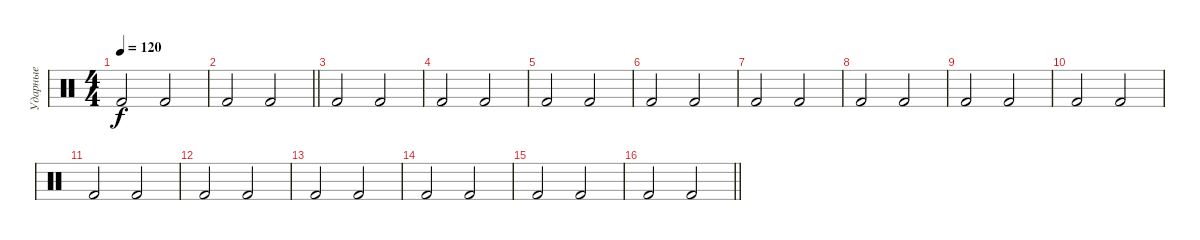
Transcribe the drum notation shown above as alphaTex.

\track ("Ударные" "Ударные") {instrument percussion}
\staff {score}
\articulation defaults
\ts (4 4)
\tempo 120
\clef neutral
\ks c "Kick (hit) 2".2{dy f} "Kick (hit) 2".2
|
\barLineRight lightlight "Kick (hit) 2".2 "Kick (hit) 2".2
|
"Kick (hit) 2".2 "Kick (hit) 2".2 |
"Kick (hit) 2".2 "Kick (hit) 2".2 |
"Kick (hit) 2".2 "Kick (hit) 2".2 |
"Kick (hit) 2".2 "Kick (hit) 2".2 |
"Kick (hit) 2".2 "Kick (hit) 2".2 |
"Kick (hit) 2".2 "Kick (hit) 2".2 |
"Kick (hit) 2".2 "Kick (hit) 2".2 |
"Kick (hit) 2".2 "Kick (hit) 2".2 |
"Kick (hit) 2".2 "Kick (hit) 2".2 |
"Kick (hit) 2".2 "Kick (hit) 2".2 |
"Kick (hit) 2".2 "Kick (hit) 2".2 |
"Kick (hit) 2".2 "Kick (hit) 2".2 |
"Kick (hit) 2".2 "Kick (hit) 2".2 |
\barLineRight lightlight "Kick (hit) 2".2 "Kick (hit) 2".2
